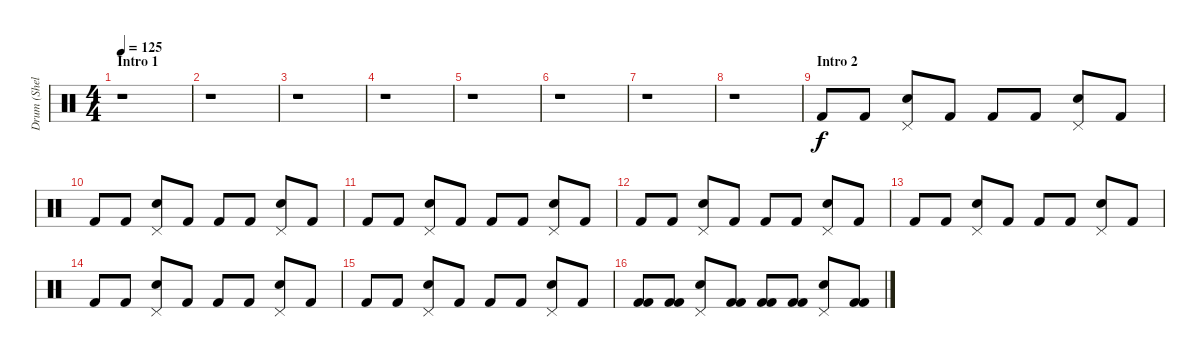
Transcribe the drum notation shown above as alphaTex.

\track ("Drum (Shelley)" "Drum (Shel") {instrument percussion}
\staff {score}
\articulation defaults
\ts (4 4)
\section ("" "Intro 1")
\tempo 125
\clef neutral
\ks c
r.1{dy f} |
r.1 |
r.1 |
r.1 |
r.1 |
r.1 |
r.1 |
r.1 |
\section ("" "Intro 2")
"Kick (hit) 2".8 "Kick (hit) 2".8 ("Pedal Hi-Hat (hit)" "Electric Snare (hit)").8 "Kick (hit) 2".8 "Kick (hit) 2".8 "Kick (hit) 2".8 ("Pedal Hi-Hat (hit)" "Electric Snare (hit)").8 "Kick (hit) 2".8 |
"Kick (hit) 2".8 "Kick (hit) 2".8 ("Pedal Hi-Hat (hit)" "Electric Snare (hit)").8 "Kick (hit) 2".8 "Kick (hit) 2".8 "Kick (hit) 2".8 ("Pedal Hi-Hat (hit)" "Electric Snare (hit)").8 "Kick (hit) 2".8 |
"Kick (hit) 2".8 "Kick (hit) 2".8 ("Pedal Hi-Hat (hit)" "Electric Snare (hit)").8 "Kick (hit) 2".8 "Kick (hit) 2".8 "Kick (hit) 2".8 ("Pedal Hi-Hat (hit)" "Electric Snare (hit)").8 "Kick (hit) 2".8 |
"Kick (hit) 2".8 "Kick (hit) 2".8 ("Pedal Hi-Hat (hit)" "Electric Snare (hit)").8 "Kick (hit) 2".8 "Kick (hit) 2".8 "Kick (hit) 2".8 ("Pedal Hi-Hat (hit)" "Electric Snare (hit)").8 "Kick (hit) 2".8 |
"Kick (hit) 2".8 "Kick (hit) 2".8 ("Pedal Hi-Hat (hit)" "Electric Snare (hit)").8 "Kick (hit) 2".8 "Kick (hit) 2".8 "Kick (hit) 2".8 ("Pedal Hi-Hat (hit)" "Electric Snare (hit)").8 "Kick (hit) 2".8 |
"Kick (hit) 2".8 "Kick (hit) 2".8 ("Pedal Hi-Hat (hit)" "Electric Snare (hit)").8 "Kick (hit) 2".8 "Kick (hit) 2".8 "Kick (hit) 2".8 ("Pedal Hi-Hat (hit)" "Electric Snare (hit)").8 "Kick (hit) 2".8 |
"Kick (hit) 2".8 "Kick (hit) 2".8 ("Pedal Hi-Hat (hit)" "Electric Snare (hit)").8 "Kick (hit) 2".8 "Kick (hit) 2".8 "Kick (hit) 2".8 ("Pedal Hi-Hat (hit)" "Electric Snare (hit)").8 "Kick (hit) 2".8 |
("Kick (hit) 2" "Kick (hit) 2").8 ("Kick (hit) 2" "Kick (hit) 2").8 ("Pedal Hi-Hat (hit)" "Electric Snare (hit)").8 ("Kick (hit) 2" "Kick (hit) 2").8 ("Kick (hit) 2" "Kick (hit) 2").8 ("Kick (hit) 2" "Kick (hit) 2").8 ("Pedal Hi-Hat (hit)" "Electric Snare (hit)").8 ("Kick (hit) 2" "Kick (hit) 2").8
